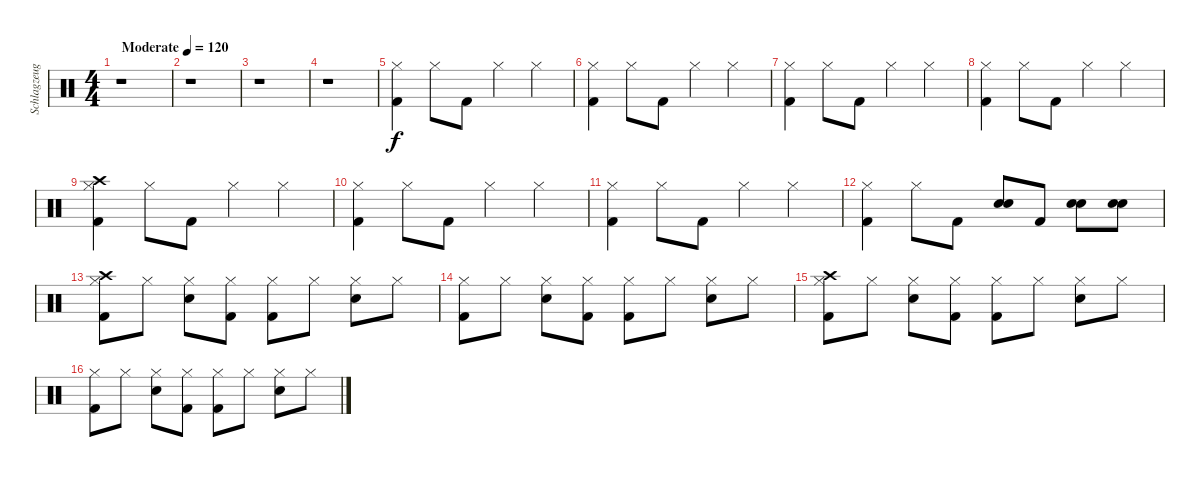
\track ("Schlagzeug" "Schlagzeug") {instrument percussion}
\staff {score}
\articulation defaults
\ts (4 4)
\tempo (120 "Moderate")
\clef neutral
\ks c
r.1{dy f} |
r.1 |
r.1 |
r.1 |
("Hi-Hat (closed)" "Kick (hit) 2").4 "Hi-Hat (closed)".8 "Kick (hit) 2".8 "Hi-Hat (closed)".4 "Hi-Hat (closed)".4 |
("Hi-Hat (closed)" "Kick (hit) 2").4 "Hi-Hat (closed)".8 "Kick (hit) 2".8 "Hi-Hat (closed)".4 "Hi-Hat (closed)".4 |
("Hi-Hat (closed)" "Kick (hit) 2").4 "Hi-Hat (closed)".8 "Kick (hit) 2".8 "Hi-Hat (closed)".4 "Hi-Hat (closed)".4 |
("Hi-Hat (closed)" "Kick (hit) 2").4 "Hi-Hat (closed)".8 "Kick (hit) 2".8 "Hi-Hat (closed)".4 "Hi-Hat (closed)".4 |
("Crash high (hit)" "Hi-Hat (closed)" "Kick (hit) 2").4 "Hi-Hat (closed)".8 "Kick (hit) 2".8 "Hi-Hat (closed)".4 "Hi-Hat (closed)".4 |
("Hi-Hat (closed)" "Kick (hit) 2").4 "Hi-Hat (closed)".8 "Kick (hit) 2".8 "Hi-Hat (closed)".4 "Hi-Hat (closed)".4 |
("Hi-Hat (closed)" "Kick (hit) 2").4 "Hi-Hat (closed)".8 "Kick (hit) 2".8 "Hi-Hat (closed)".4 "Hi-Hat (closed)".4 |
("Hi-Hat (closed)" "Kick (hit) 2").4 "Hi-Hat (closed)".8 "Kick (hit) 2".8 ("Electric Snare (hit)" "Electric Snare (hit)").8 "Kick (hit) 2".8 ("Electric Snare (hit)" "Electric Snare (hit)").8 ("Electric Snare (hit)" "Electric Snare (hit)").8 |
("Crash high (hit)" "Hi-Hat (closed)" "Kick (hit) 2").8 "Hi-Hat (closed)".8 ("Hi-Hat (closed)" "Electric Snare (hit)").8 ("Hi-Hat (closed)" "Kick (hit) 2").8 ("Hi-Hat (closed)" "Kick (hit) 2").8 "Hi-Hat (closed)".8 ("Hi-Hat (closed)" "Electric Snare (hit)").8 "Hi-Hat (closed)".8 |
("Hi-Hat (closed)" "Kick (hit) 2").8 "Hi-Hat (closed)".8 ("Hi-Hat (closed)" "Electric Snare (hit)").8 ("Hi-Hat (closed)" "Kick (hit) 2").8 ("Hi-Hat (closed)" "Kick (hit) 2").8 "Hi-Hat (closed)".8 ("Hi-Hat (closed)" "Electric Snare (hit)").8 "Hi-Hat (closed)".8 |
("Crash high (hit)" "Hi-Hat (closed)" "Kick (hit) 2").8 "Hi-Hat (closed)".8 ("Hi-Hat (closed)" "Electric Snare (hit)").8 ("Hi-Hat (closed)" "Kick (hit) 2").8 ("Hi-Hat (closed)" "Kick (hit) 2").8 "Hi-Hat (closed)".8 ("Hi-Hat (closed)" "Electric Snare (hit)").8 "Hi-Hat (closed)".8 |
("Hi-Hat (closed)" "Kick (hit) 2").8 "Hi-Hat (closed)".8 ("Hi-Hat (closed)" "Electric Snare (hit)").8 ("Hi-Hat (closed)" "Kick (hit) 2").8 ("Hi-Hat (closed)" "Kick (hit) 2").8 "Hi-Hat (closed)".8 ("Hi-Hat (closed)" "Electric Snare (hit)").8 "Hi-Hat (closed)".8
